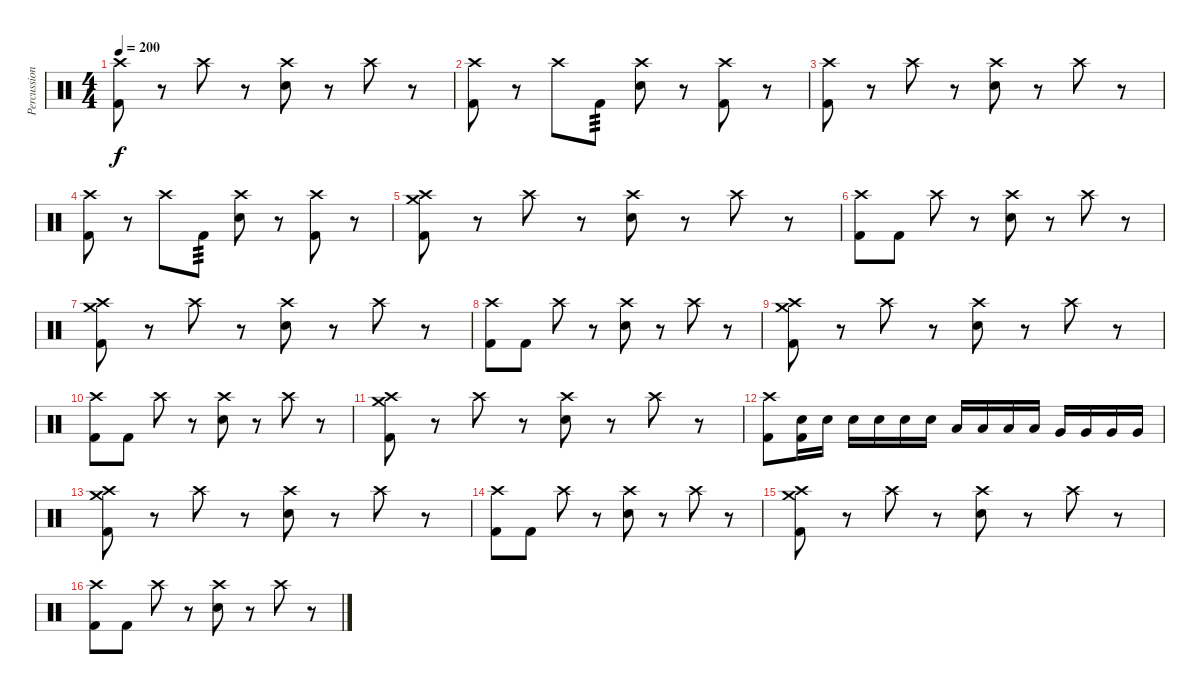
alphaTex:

\track ("Percussion" "Percussion") {instrument percussion}
\staff {score}
\articulation defaults
\ts (4 4)
\tempo 200
\clef neutral
\ks c
("Crash high (hit)" "Kick (hit) 2").8{dy f} r.8 "Crash high (hit)".8 r.8 ("Crash high (hit)" "Electric Snare (hit)").8 r.8 "Crash high (hit)".8 r.8 |
("Crash high (hit)" "Kick (hit) 2").8 r.8 "Crash high (hit)".8 "Kick (hit) 2".8{tp 3} ("Crash high (hit)" "Electric Snare (hit)").8 r.8 ("Crash high (hit)" "Kick (hit) 2").8 r.8 |
("Crash high (hit)" "Kick (hit) 2").8 r.8 "Crash high (hit)".8 r.8 ("Crash high (hit)" "Electric Snare (hit)").8 r.8 "Crash high (hit)".8 r.8 |
("Crash high (hit)" "Kick (hit) 2").8 r.8 "Crash high (hit)".8 "Kick (hit) 2".8{tp 3} ("Crash high (hit)" "Electric Snare (hit)").8 r.8 ("Crash high (hit)" "Kick (hit) 2").8 r.8 |
("Crash medium (hit)" "Crash high (hit)" "Kick (hit) 2").8 r.8 "Crash high (hit)".8 r.8 ("Crash high (hit)" "Electric Snare (hit)").8 r.8 "Crash high (hit)".8 r.8 |
("Crash high (hit)" "Kick (hit) 2").8 "Kick (hit) 2".8 "Crash high (hit)".8 r.8 ("Crash high (hit)" "Electric Snare (hit)").8 r.8 "Crash high (hit)".8 r.8 |
("Crash medium (hit)" "Crash high (hit)" "Kick (hit) 2").8 r.8 "Crash high (hit)".8 r.8 ("Crash high (hit)" "Electric Snare (hit)").8 r.8 "Crash high (hit)".8 r.8 |
("Crash high (hit)" "Kick (hit) 2").8 "Kick (hit) 2".8 "Crash high (hit)".8 r.8 ("Crash high (hit)" "Electric Snare (hit)").8 r.8 "Crash high (hit)".8 r.8 |
("Crash medium (hit)" "Crash high (hit)" "Kick (hit) 2").8 r.8 "Crash high (hit)".8 r.8 ("Crash high (hit)" "Electric Snare (hit)").8 r.8 "Crash high (hit)".8 r.8 |
("Crash high (hit)" "Kick (hit) 2").8 "Kick (hit) 2".8 "Crash high (hit)".8 r.8 ("Crash high (hit)" "Electric Snare (hit)").8 r.8 "Crash high (hit)".8 r.8 |
("Crash medium (hit)" "Crash high (hit)" "Kick (hit) 2").8 r.8 "Crash high (hit)".8 r.8 ("Crash high (hit)" "Electric Snare (hit)").8 r.8 "Crash high (hit)".8 r.8 |
("Crash high (hit)" "Kick (hit) 2").8 ("Electric Snare (hit)" "Kick (hit) 2").16 "Electric Snare (hit)".16 "Electric Snare (hit)".16 "Electric Snare (hit)".16 "Electric Snare (hit)".16 "Electric Snare (hit)".16 "Low Tom (hit)".16 "Low Tom (hit)".16 "Low Tom (hit)".16 "Low Tom (hit)".16 "Very Low Tom (hit)".16 "Very Low Tom (hit)".16 "Very Low Tom (hit)".16 "Very Low Tom (hit)".16 |
("Crash medium (hit)" "Crash high (hit)" "Kick (hit) 2").8 r.8 "Crash high (hit)".8 r.8 ("Crash high (hit)" "Electric Snare (hit)").8 r.8 "Crash high (hit)".8 r.8 |
("Crash high (hit)" "Kick (hit) 2").8 "Kick (hit) 2".8 "Crash high (hit)".8 r.8 ("Crash high (hit)" "Electric Snare (hit)").8 r.8 "Crash high (hit)".8 r.8 |
("Crash medium (hit)" "Crash high (hit)" "Kick (hit) 2").8 r.8 "Crash high (hit)".8 r.8 ("Crash high (hit)" "Electric Snare (hit)").8 r.8 "Crash high (hit)".8 r.8 |
("Crash high (hit)" "Kick (hit) 2").8 "Kick (hit) 2".8 "Crash high (hit)".8 r.8 ("Crash high (hit)" "Electric Snare (hit)").8 r.8 "Crash high (hit)".8 r.8
